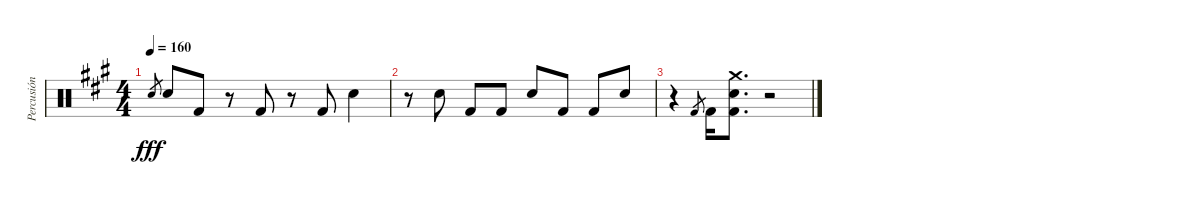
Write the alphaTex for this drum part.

\track ("Percusión" "Percusión") {instrument percussion}
\staff {score}
\articulation defaults
\ts (4 4)
\tempo 160
\clef neutral
\ks a "Electric Snare (hit)".8{gr dy fff} "Electric Snare (hit)".8 "Kick (hit) 2".8
r.8 "Kick (hit) 2".8 r.8 "Kick (hit) 2".8 "Electric Snare (hit)".4 |
r.8 "Electric Snare (hit)".8 "Kick (hit) 2".8 "Kick (hit) 2".8 "Electric Snare (hit)".8 "Kick (hit) 2".8 "Kick (hit) 2".8 "Electric Snare (hit)".8 |
r.4 "Kick (hit) 2".8{gr} "Kick (hit) 2".16 ("Crash medium (hit)" "Electric Snare (hit)" "Kick (hit) 2").8{d} r.2
